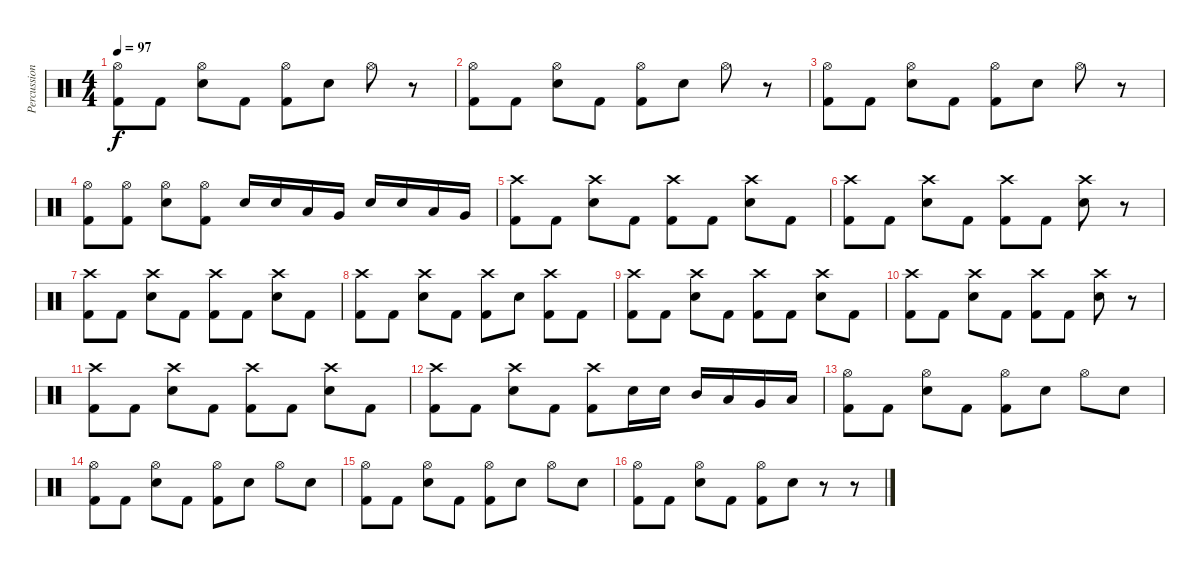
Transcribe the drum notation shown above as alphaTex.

\track ("Percussion" "Percussion") {instrument percussion}
\staff {score}
\articulation defaults
\ts (4 4)
\tempo 97
\clef neutral
\ks c
("Hi-Hat (open)" "Kick (hit) 2").8{dy f} "Kick (hit) 2".8 ("Hi-Hat (open)" "Electric Snare (hit)").8 "Kick (hit) 2".8 ("Hi-Hat (open)" "Kick (hit) 2").8 "Electric Snare (hit)".8 "Hi-Hat (open)".8 r.8 |
("Hi-Hat (open)" "Kick (hit) 2").8 "Kick (hit) 2".8 ("Hi-Hat (open)" "Electric Snare (hit)").8 "Kick (hit) 2".8 ("Hi-Hat (open)" "Kick (hit) 2").8 "Electric Snare (hit)".8 "Hi-Hat (open)".8 r.8 |
("Hi-Hat (open)" "Kick (hit) 2").8 "Kick (hit) 2".8 ("Hi-Hat (open)" "Electric Snare (hit)").8 "Kick (hit) 2".8 ("Hi-Hat (open)" "Kick (hit) 2").8 "Electric Snare (hit)".8 "Hi-Hat (open)".8 r.8 |
("Hi-Hat (open)" "Kick (hit) 2").8 ("Hi-Hat (open)" "Kick (hit) 2").8 ("Hi-Hat (open)" "Electric Snare (hit)").8 ("Hi-Hat (open)" "Kick (hit) 2").8 "Electric Snare (hit)".16 "Electric Snare (hit)".16 "Low Tom (hit)".16 "Very Low Tom (hit)".16 "Electric Snare (hit)".16 "Electric Snare (hit)".16 "Low Tom (hit)".16 "Very Low Tom (hit)".16 |
("Crash high (hit)" "Kick (hit) 2").8 "Kick (hit) 2".8 ("Crash high (hit)" "Electric Snare (hit)").8 "Kick (hit) 2".8 ("Crash high (hit)" "Kick (hit) 2").8 "Kick (hit) 2".8 ("Crash high (hit)" "Electric Snare (hit)").8 "Kick (hit) 2".8 |
("Crash high (hit)" "Kick (hit) 2").8 "Kick (hit) 2".8 ("Crash high (hit)" "Electric Snare (hit)").8 "Kick (hit) 2".8 ("Crash high (hit)" "Kick (hit) 2").8 "Kick (hit) 2".8 ("Crash high (hit)" "Electric Snare (hit)").8 r.8 |
("Crash high (hit)" "Kick (hit) 2").8 "Kick (hit) 2".8 ("Crash high (hit)" "Electric Snare (hit)").8 "Kick (hit) 2".8 ("Crash high (hit)" "Kick (hit) 2").8 "Kick (hit) 2".8 ("Crash high (hit)" "Electric Snare (hit)").8 "Kick (hit) 2".8 |
("Crash high (hit)" "Kick (hit) 2").8 "Kick (hit) 2".8 ("Crash high (hit)" "Electric Snare (hit)").8 "Kick (hit) 2".8 ("Crash high (hit)" "Kick (hit) 2").8 "Electric Snare (hit)".8 ("Crash high (hit)" "Kick (hit) 2").8 "Kick (hit) 2".8 |
("Crash high (hit)" "Kick (hit) 2").8 "Kick (hit) 2".8 ("Crash high (hit)" "Electric Snare (hit)").8 "Kick (hit) 2".8 ("Crash high (hit)" "Kick (hit) 2").8 "Kick (hit) 2".8 ("Crash high (hit)" "Electric Snare (hit)").8 "Kick (hit) 2".8 |
("Crash high (hit)" "Kick (hit) 2").8 "Kick (hit) 2".8 ("Crash high (hit)" "Electric Snare (hit)").8 "Kick (hit) 2".8 ("Crash high (hit)" "Kick (hit) 2").8 "Kick (hit) 2".8 ("Crash high (hit)" "Electric Snare (hit)").8 r.8 |
("Crash high (hit)" "Kick (hit) 2").8 "Kick (hit) 2".8 ("Crash high (hit)" "Electric Snare (hit)").8 "Kick (hit) 2".8 ("Crash high (hit)" "Kick (hit) 2").8 "Kick (hit) 2".8 ("Crash high (hit)" "Electric Snare (hit)").8 "Kick (hit) 2".8 |
("Crash high (hit)" "Kick (hit) 2").8 "Kick (hit) 2".8 ("Crash high (hit)" "Electric Snare (hit)").8 "Kick (hit) 2".8 ("Crash high (hit)" "Kick (hit) 2").8 "Electric Snare (hit)".16 "Electric Snare (hit)".16 "Mid Tom (hit)".16 "Low Tom (hit)".16 "Very Low Tom (hit)".16 "Low Floor Tom (hit)".16 |
("Hi-Hat (open)" "Kick (hit) 2").8 "Kick (hit) 2".8 ("Hi-Hat (open)" "Electric Snare (hit)").8 "Kick (hit) 2".8 ("Hi-Hat (open)" "Kick (hit) 2").8 "Electric Snare (hit)".8 "Hi-Hat (open)".8 "Electric Snare (hit)".8 |
("Hi-Hat (open)" "Kick (hit) 2").8 "Kick (hit) 2".8 ("Hi-Hat (open)" "Electric Snare (hit)").8 "Kick (hit) 2".8 ("Hi-Hat (open)" "Kick (hit) 2").8 "Electric Snare (hit)".8 "Hi-Hat (open)".8 "Electric Snare (hit)".8 |
("Hi-Hat (open)" "Kick (hit) 2").8 "Kick (hit) 2".8 ("Hi-Hat (open)" "Electric Snare (hit)").8 "Kick (hit) 2".8 ("Hi-Hat (open)" "Kick (hit) 2").8 "Electric Snare (hit)".8 "Hi-Hat (open)".8 "Electric Snare (hit)".8 |
("Hi-Hat (open)" "Kick (hit) 2").8 "Kick (hit) 2".8 ("Hi-Hat (open)" "Electric Snare (hit)").8 "Kick (hit) 2".8 ("Hi-Hat (open)" "Kick (hit) 2").8 "Electric Snare (hit)".8 r.8 r.8
